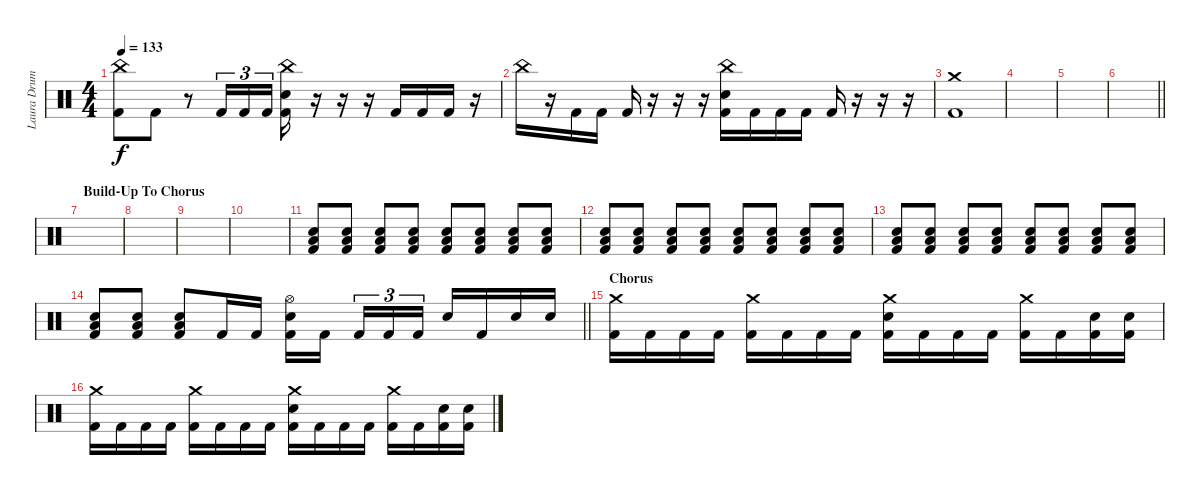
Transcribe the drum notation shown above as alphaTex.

\track ("Laura Drums" "Laura Drum") {instrument percussion}
\staff {score}
\articulation defaults
\ts (4 4)
\tempo 133
\clef neutral
\ks c
("China (hit)" "Kick (hit) 2").8{dy f} "Kick (hit) 2".8 r.8 "Kick (hit) 2".16{tu (3 2)} "Kick (hit) 2".16{tu (3 2)} "Kick (hit) 2".16{tu (3 2)} ("China (hit)" "Electric Snare (hit)" "Kick (hit) 2").16 r.16 r.16 r.16 "Kick (hit) 2".16 "Kick (hit) 2".16 "Kick (hit) 2".16 r.16 |
"China (hit)".16 r.16 "Kick (hit) 2".16 "Kick (hit) 2".16 "Kick (hit) 2".16 r.16 r.16 r.16 ("China (hit)" "Electric Snare (hit)" "Kick (hit) 2").16 "Kick (hit) 2".16 "Kick (hit) 2".16 "Kick (hit) 2".16 "Kick (hit) 2".16 r.16 r.16 r.16 |
("Crash medium (hit)" "Kick (hit) 2").1 |
|
|
\barLineRight lightlight
|
\section ("" "Build-Up To Chorus")
|
|
|
|
("Electric Snare (hit)" "Low Tom (hit)" "Kick (hit) 2").8 ("Electric Snare (hit)" "Low Tom (hit)" "Kick (hit) 2").8 ("Electric Snare (hit)" "Low Tom (hit)" "Kick (hit) 2").8 ("Electric Snare (hit)" "Low Tom (hit)" "Kick (hit) 2").8 ("Electric Snare (hit)" "Low Tom (hit)" "Kick (hit) 2").8 ("Electric Snare (hit)" "Low Tom (hit)" "Kick (hit) 2").8 ("Electric Snare (hit)" "Low Tom (hit)" "Kick (hit) 2").8 ("Electric Snare (hit)" "Low Tom (hit)" "Kick (hit) 2").8 |
("Electric Snare (hit)" "Low Tom (hit)" "Kick (hit) 2").8 ("Electric Snare (hit)" "Low Tom (hit)" "Kick (hit) 2").8 ("Electric Snare (hit)" "Low Tom (hit)" "Kick (hit) 2").8 ("Electric Snare (hit)" "Low Tom (hit)" "Kick (hit) 2").8 ("Electric Snare (hit)" "Low Tom (hit)" "Kick (hit) 2").8 ("Electric Snare (hit)" "Low Tom (hit)" "Kick (hit) 2").8 ("Electric Snare (hit)" "Low Tom (hit)" "Kick (hit) 2").8 ("Electric Snare (hit)" "Low Tom (hit)" "Kick (hit) 2").8 |
("Electric Snare (hit)" "Low Tom (hit)" "Kick (hit) 2").8 ("Electric Snare (hit)" "Low Tom (hit)" "Kick (hit) 2").8 ("Electric Snare (hit)" "Low Tom (hit)" "Kick (hit) 2").8 ("Electric Snare (hit)" "Low Tom (hit)" "Kick (hit) 2").8 ("Electric Snare (hit)" "Low Tom (hit)" "Kick (hit) 2").8 ("Electric Snare (hit)" "Low Tom (hit)" "Kick (hit) 2").8 ("Electric Snare (hit)" "Low Tom (hit)" "Kick (hit) 2").8 ("Electric Snare (hit)" "Low Tom (hit)" "Kick (hit) 2").8 |
\barLineRight lightlight
("Electric Snare (hit)" "Low Tom (hit)" "Kick (hit) 2").8 ("Electric Snare (hit)" "Low Tom (hit)" "Kick (hit) 2").8 ("Electric Snare (hit)" "Low Tom (hit)" "Kick (hit) 2").8 "Kick (hit) 2".16 "Kick (hit) 2".16 ("Hi-Hat (open)" "Electric Snare (hit)" "Kick (hit) 2").16 "Kick (hit) 2".16{beam splitsecondary} "Kick (hit) 2".16{tu (3 2)} "Kick (hit) 2".16{tu (3 2)} "Kick (hit) 2".16{tu (3 2)} "Electric Snare (hit)".16 "Kick (hit) 2".16 "Electric Snare (hit)".16 "Electric Snare (hit)".16 |
\section ("" "Chorus")
("Crash medium (hit)" "Kick (hit) 2").16 "Kick (hit) 2".16 "Kick (hit) 2".16 "Kick (hit) 2".16 ("Crash medium (hit)" "Kick (hit) 2").16 "Kick (hit) 2".16 "Kick (hit) 2".16 "Kick (hit) 2".16 ("Crash medium (hit)" "Electric Snare (hit)" "Kick (hit) 2").16 "Kick (hit) 2".16 "Kick (hit) 2".16 "Kick (hit) 2".16 ("Crash medium (hit)" "Kick (hit) 2").16 "Kick (hit) 2".16 ("Electric Snare (hit)" "Kick (hit) 2").16 ("Electric Snare (hit)" "Kick (hit) 2").16 |
("Crash medium (hit)" "Kick (hit) 2").16 "Kick (hit) 2".16 "Kick (hit) 2".16 "Kick (hit) 2".16 ("Crash medium (hit)" "Kick (hit) 2").16 "Kick (hit) 2".16 "Kick (hit) 2".16 "Kick (hit) 2".16 ("Crash medium (hit)" "Electric Snare (hit)" "Kick (hit) 2").16 "Kick (hit) 2".16 "Kick (hit) 2".16 "Kick (hit) 2".16 ("Crash medium (hit)" "Kick (hit) 2").16 "Kick (hit) 2".16 ("Electric Snare (hit)" "Kick (hit) 2").16 ("Electric Snare (hit)" "Kick (hit) 2").16
